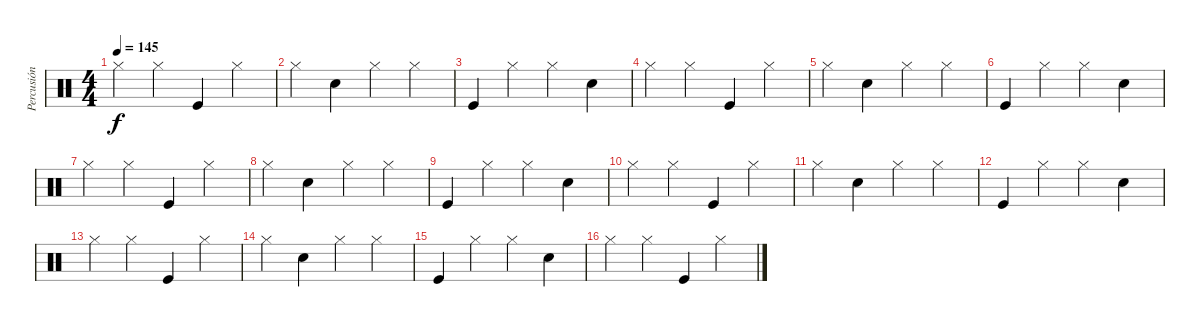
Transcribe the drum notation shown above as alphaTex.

\track ("Percusión" "Percusión") {instrument percussion}
\staff {score}
\articulation defaults
\ts (4 4)
\tempo 145
\clef neutral
\ks c "Hi-Hat (closed)".4{dy f} "Hi-Hat (closed)".4 "Kick (hit)".4 "Hi-Hat (closed)".4
|
"Hi-Hat (closed)".4 "Snare (hit) 2".4 "Hi-Hat (closed)".4 "Hi-Hat (closed)".4 |
"Kick (hit)".4 "Hi-Hat (closed)".4 "Hi-Hat (closed)".4 "Snare (hit) 2".4 |
"Hi-Hat (closed)".4 "Hi-Hat (closed)".4 "Kick (hit)".4 "Hi-Hat (closed)".4 |
"Hi-Hat (closed)".4 "Snare (hit) 2".4 "Hi-Hat (closed)".4 "Hi-Hat (closed)".4 |
"Kick (hit)".4 "Hi-Hat (closed)".4 "Hi-Hat (closed)".4 "Snare (hit) 2".4 |
"Hi-Hat (closed)".4 "Hi-Hat (closed)".4 "Kick (hit)".4 "Hi-Hat (closed)".4 |
"Hi-Hat (closed)".4 "Snare (hit) 2".4 "Hi-Hat (closed)".4 "Hi-Hat (closed)".4 |
"Kick (hit)".4 "Hi-Hat (closed)".4 "Hi-Hat (closed)".4 "Snare (hit) 2".4 |
"Hi-Hat (closed)".4 "Hi-Hat (closed)".4 "Kick (hit)".4 "Hi-Hat (closed)".4 |
"Hi-Hat (closed)".4 "Snare (hit) 2".4 "Hi-Hat (closed)".4 "Hi-Hat (closed)".4 |
"Kick (hit)".4 "Hi-Hat (closed)".4 "Hi-Hat (closed)".4 "Snare (hit) 2".4 |
"Hi-Hat (closed)".4 "Hi-Hat (closed)".4 "Kick (hit)".4 "Hi-Hat (closed)".4 |
"Hi-Hat (closed)".4 "Snare (hit) 2".4 "Hi-Hat (closed)".4 "Hi-Hat (closed)".4 |
"Kick (hit)".4 "Hi-Hat (closed)".4 "Hi-Hat (closed)".4 "Snare (hit) 2".4 |
"Hi-Hat (closed)".4 "Hi-Hat (closed)".4 "Kick (hit)".4 "Hi-Hat (closed)".4
